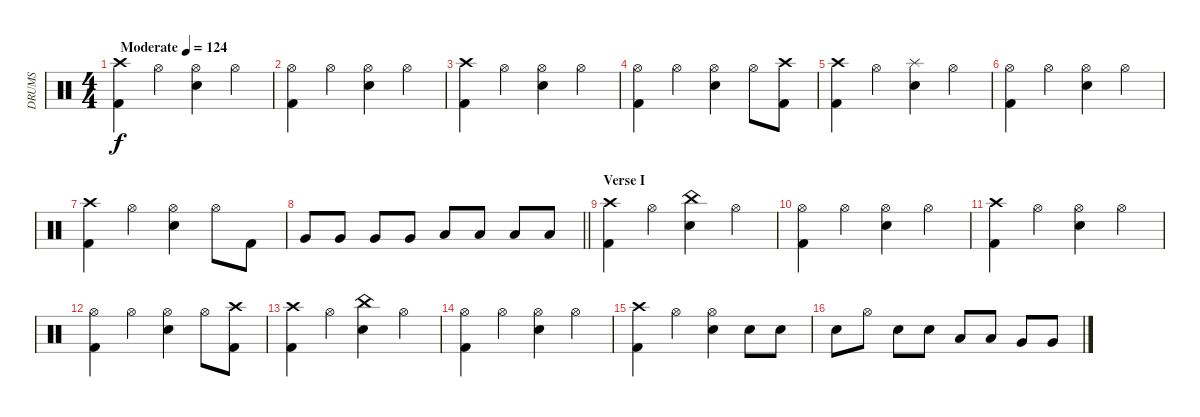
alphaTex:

\track ("DRUMS" "DRUMS") {instrument percussion}
\staff {score}
\articulation defaults
\ts (4 4)
\tempo (124 "Moderate")
\clef neutral
\ks c
("Crash high (hit)" "Kick (hit) 2").4{dy f} "Hi-Hat (open)".4 ("Hi-Hat (open)" "Snare (hit) 2").4 "Hi-Hat (open)".4 |
("Hi-Hat (open)" "Kick (hit) 2").4 "Hi-Hat (open)".4 ("Hi-Hat (open)" "Snare (hit) 2").4 "Hi-Hat (open)".4 |
("Crash high (hit)" "Kick (hit) 2").4 "Hi-Hat (open)".4 ("Hi-Hat (open)" "Snare (hit) 2").4 "Hi-Hat (open)".4 |
("Hi-Hat (open)" "Kick (hit) 2").4 "Hi-Hat (open)".4 ("Hi-Hat (open)" "Snare (hit) 2").4 "Hi-Hat (open)".8 ("Crash high (hit)" "Kick (hit) 2").8 |
("Crash high (hit)" "Kick (hit) 2").4 "Hi-Hat (open)".4 ("Splash (hit)" "Snare (hit) 2").4 "Hi-Hat (open)".4 |
("Hi-Hat (open)" "Kick (hit) 2").4 "Hi-Hat (open)".4 ("Hi-Hat (open)" "Snare (hit) 2").4 "Hi-Hat (open)".4 |
("Crash high (hit)" "Kick (hit) 2").4 "Hi-Hat (open)".4 ("Hi-Hat (open)" "Snare (hit) 2").4 "Hi-Hat (open)".8 "Kick (hit) 2".8 |
\barLineRight lightlight "Very Low Tom (hit)".8 "Very Low Tom (hit)".8 "Very Low Tom (hit)".8 "Very Low Tom (hit)".8 "Low Floor Tom (hit)".8 "Low Floor Tom (hit)".8 "Low Floor Tom (hit)".8 "Low Floor Tom (hit)".8
|
\section ("" "Verse I")
("Crash high (hit)" "Kick (hit) 2").4 "Hi-Hat (open)".4 ("China (hit)" "Snare (hit) 2").4 "Hi-Hat (open)".4 |
("Hi-Hat (open)" "Kick (hit) 2").4 "Hi-Hat (open)".4 ("Hi-Hat (open)" "Snare (hit) 2").4 "Hi-Hat (open)".4 |
("Crash high (hit)" "Kick (hit) 2").4 "Hi-Hat (open)".4 ("Hi-Hat (open)" "Snare (hit) 2").4 "Hi-Hat (open)".4 |
("Hi-Hat (open)" "Kick (hit) 2").4 "Hi-Hat (open)".4 ("Hi-Hat (open)" "Snare (hit) 2").4 "Hi-Hat (open)".8 ("Crash high (hit)" "Kick (hit) 2").8 |
("Crash high (hit)" "Kick (hit) 2").4 "Hi-Hat (open)".4 ("China (hit)" "Snare (hit) 2").4 "Hi-Hat (open)".4 |
("Hi-Hat (open)" "Kick (hit) 2").4 "Hi-Hat (open)".4 ("Hi-Hat (open)" "Snare (hit) 2").4 "Hi-Hat (open)".4 |
("Crash high (hit)" "Kick (hit) 2").4 "Hi-Hat (open)".4 ("Hi-Hat (open)" "Snare (hit) 2").4 "Snare (hit) 2".8 "Snare (hit) 2".8 |
"Snare (hit) 2".8 "Hi-Hat (open)".8 "Snare (hit) 2".8 "Snare (hit) 2".8 "Low Tom (hit)".8 "Low Tom (hit)".8 "Very Low Tom (hit)".8 "Very Low Tom (hit)".8
